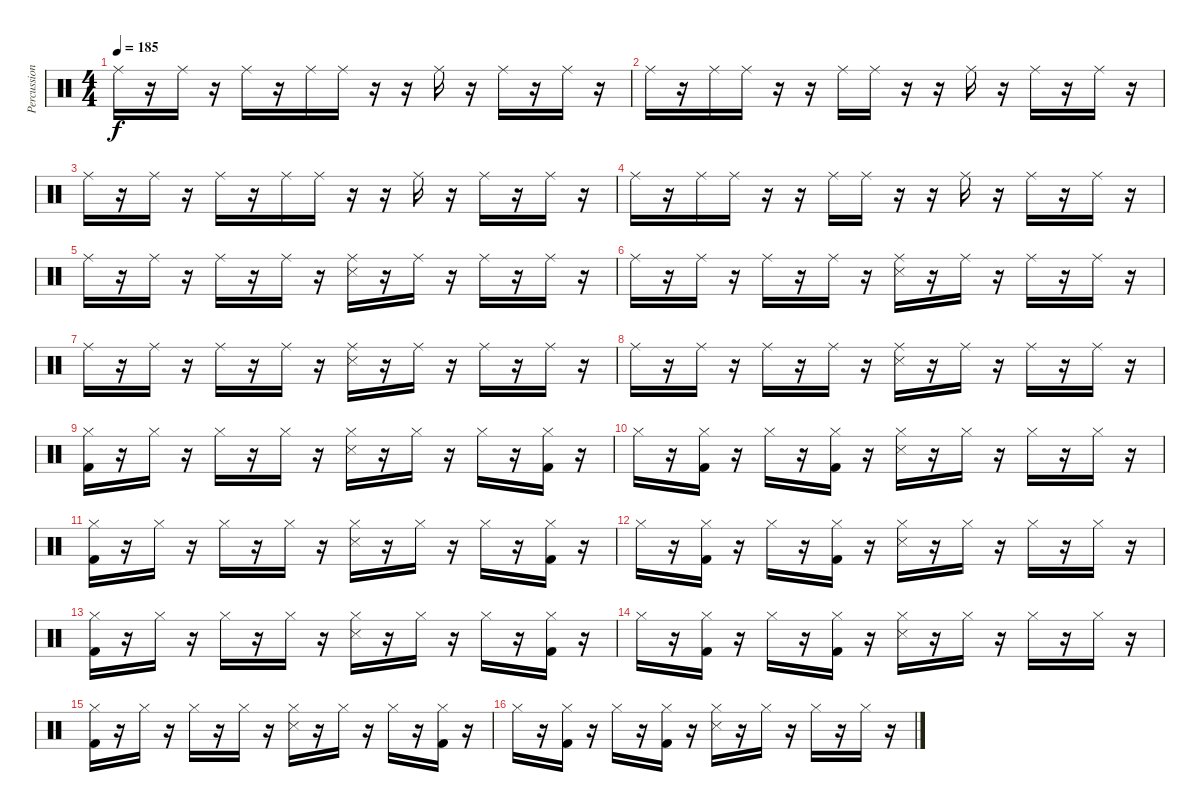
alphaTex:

\track ("Percussion" "Percussion") {instrument percussion}
\staff {score}
\articulation defaults
\ts (4 4)
\tempo 185
\clef neutral
\ks c "Ride (middle)".16{dy f}
r.16 "Ride (middle)".16 r.16 "Ride (middle)".16 r.16 "Ride (middle)".16 "Ride (middle)".16 r.16 r.16 "Ride (middle)".16 r.16 "Ride (middle)".16 r.16 "Ride (middle)".16 r.16 |
"Ride (middle)".16 r.16 "Ride (middle)".16 "Ride (middle)".16 r.16 r.16 "Ride (middle)".16 "Ride (middle)".16 r.16 r.16 "Ride (middle)".16 r.16 "Ride (middle)".16 r.16 "Ride (middle)".16 r.16 |
"Ride (middle)".16 r.16 "Ride (middle)".16 r.16 "Ride (middle)".16 r.16 "Ride (middle)".16 "Ride (middle)".16 r.16 r.16 "Ride (middle)".16 r.16 "Ride (middle)".16 r.16 "Ride (middle)".16 r.16 |
"Ride (middle)".16 r.16 "Ride (middle)".16 "Ride (middle)".16 r.16 r.16 "Ride (middle)".16 "Ride (middle)".16 r.16 r.16 "Ride (middle)".16 r.16 "Ride (middle)".16 r.16 "Ride (middle)".16 r.16 |
"Ride (middle)".16 r.16 "Ride (middle)".16 r.16 "Ride (middle)".16 r.16 "Ride (middle)".16 r.16 ("Ride (middle)" "Metronome (hit)").16 r.16 "Ride (middle)".16 r.16 "Ride (middle)".16 r.16 "Ride (middle)".16 r.16 |
"Ride (middle)".16 r.16 "Ride (middle)".16 r.16 "Ride (middle)".16 r.16 "Ride (middle)".16 r.16 ("Ride (middle)" "Metronome (hit)").16 r.16 "Ride (middle)".16 r.16 "Ride (middle)".16 r.16 "Ride (middle)".16 r.16 |
"Ride (middle)".16 r.16 "Ride (middle)".16 r.16 "Ride (middle)".16 r.16 "Ride (middle)".16 r.16 ("Ride (middle)" "Metronome (hit)").16 r.16 "Ride (middle)".16 r.16 "Ride (middle)".16 r.16 "Ride (middle)".16 r.16 |
"Ride (middle)".16 r.16 "Ride (middle)".16 r.16 "Ride (middle)".16 r.16 "Ride (middle)".16 r.16 ("Ride (middle)" "Metronome (hit)").16 r.16 "Ride (middle)".16 r.16 "Ride (middle)".16 r.16 "Ride (middle)".16 r.16 |
("Hi-Hat (closed)" "Kick (hit) 2").16 r.16 "Hi-Hat (closed)".16 r.16 "Hi-Hat (closed)".16 r.16 "Hi-Hat (closed)".16 r.16 ("Hi-Hat (closed)" "Metronome (hit)").16 r.16 "Hi-Hat (closed)".16 r.16 "Hi-Hat (closed)".16 r.16 ("Hi-Hat (closed)" "Kick (hit) 2").16 r.16 |
"Hi-Hat (closed)".16 r.16 ("Hi-Hat (closed)" "Kick (hit) 2").16 r.16 "Hi-Hat (closed)".16 r.16 ("Hi-Hat (closed)" "Kick (hit) 2").16 r.16 ("Hi-Hat (closed)" "Metronome (hit)").16 r.16 "Hi-Hat (closed)".16 r.16 "Hi-Hat (closed)".16 r.16 "Hi-Hat (closed)".16 r.16 |
("Hi-Hat (closed)" "Kick (hit) 2").16 r.16 "Hi-Hat (closed)".16 r.16 "Hi-Hat (closed)".16 r.16 "Hi-Hat (closed)".16 r.16 ("Hi-Hat (closed)" "Metronome (hit)").16 r.16 "Hi-Hat (closed)".16 r.16 "Hi-Hat (closed)".16 r.16 ("Hi-Hat (closed)" "Kick (hit) 2").16 r.16 |
"Hi-Hat (closed)".16 r.16 ("Hi-Hat (closed)" "Kick (hit) 2").16 r.16 "Hi-Hat (closed)".16 r.16 ("Hi-Hat (closed)" "Kick (hit) 2").16 r.16 ("Hi-Hat (closed)" "Metronome (hit)").16 r.16 "Hi-Hat (closed)".16 r.16 "Hi-Hat (closed)".16 r.16 "Hi-Hat (closed)".16 r.16 |
("Hi-Hat (closed)" "Kick (hit) 2").16 r.16 "Hi-Hat (closed)".16 r.16 "Hi-Hat (closed)".16 r.16 "Hi-Hat (closed)".16 r.16 ("Hi-Hat (closed)" "Metronome (hit)").16 r.16 "Hi-Hat (closed)".16 r.16 "Hi-Hat (closed)".16 r.16 ("Hi-Hat (closed)" "Kick (hit) 2").16 r.16 |
"Hi-Hat (closed)".16 r.16 ("Hi-Hat (closed)" "Kick (hit) 2").16 r.16 "Hi-Hat (closed)".16 r.16 ("Hi-Hat (closed)" "Kick (hit) 2").16 r.16 ("Hi-Hat (closed)" "Metronome (hit)").16 r.16 "Hi-Hat (closed)".16 r.16 "Hi-Hat (closed)".16 r.16 "Hi-Hat (closed)".16 r.16 |
("Hi-Hat (closed)" "Kick (hit) 2").16 r.16 "Hi-Hat (closed)".16 r.16 "Hi-Hat (closed)".16 r.16 "Hi-Hat (closed)".16 r.16 ("Hi-Hat (closed)" "Metronome (hit)").16 r.16 "Hi-Hat (closed)".16 r.16 "Hi-Hat (closed)".16 r.16 ("Hi-Hat (closed)" "Kick (hit) 2").16 r.16 |
"Hi-Hat (closed)".16 r.16 ("Hi-Hat (closed)" "Kick (hit) 2").16 r.16 "Hi-Hat (closed)".16 r.16 ("Hi-Hat (closed)" "Kick (hit) 2").16 r.16 ("Hi-Hat (closed)" "Metronome (hit)").16 r.16 "Hi-Hat (closed)".16 r.16 "Hi-Hat (closed)".16 r.16 "Hi-Hat (closed)".16 r.16
